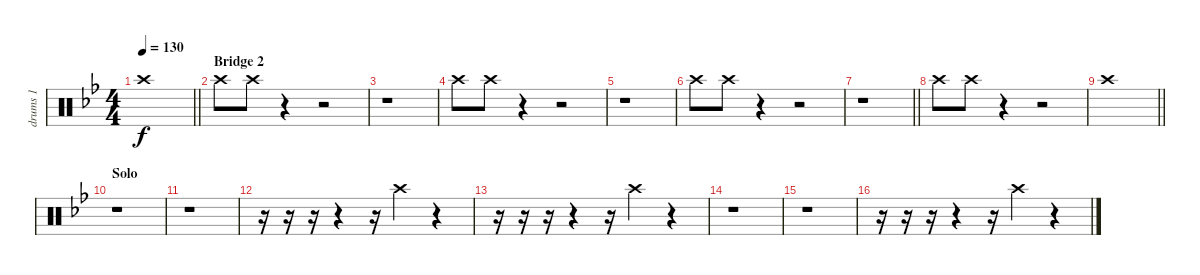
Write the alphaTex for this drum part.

\track ("drums 1" "drums 1") {instrument percussion}
\staff {score}
\articulation defaults
\ts (4 4)
\tempo 130
\clef neutral
\barLineRight lightlight
\ks bb "Crash high (hit)"{t}.1{dy f}
|
\section ("" "Bridge 2")
"Crash high (hit)".8 "Crash high (hit)".8 r.4 r.2 |
r.1 |
"Crash high (hit)".8 "Crash high (hit)".8 r.4 r.2 |
r.1 |
"Crash high (hit)".8 "Crash high (hit)".8 r.4 r.2 |
\barLineRight lightlight
r.1 |
"Crash high (hit)".8 "Crash high (hit)".8 r.4 r.2 |
\barLineRight lightlight "Crash high (hit)".1
|
\section ("" "Solo")
r.1 |
r.1 |
r.16 r.16 r.16 r.4 r.16 "Crash high (hit)".4 r.4 |
r.16 r.16 r.16 r.4 r.16 "Crash high (hit)".4 r.4 |
r.1 |
r.1 |
r.16 r.16 r.16 r.4 r.16 "Crash high (hit)".4 r.4
